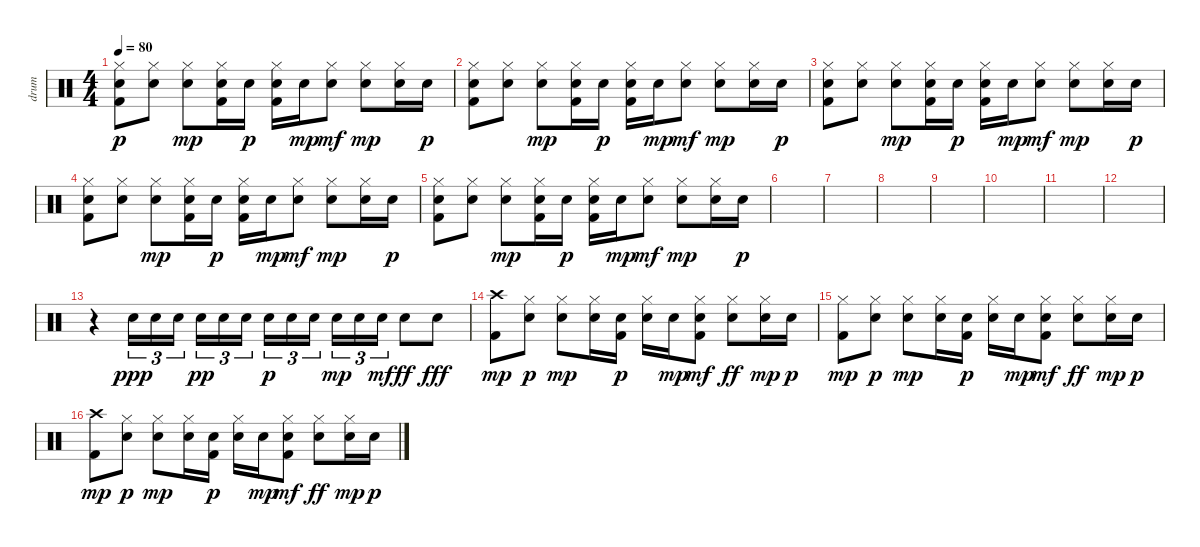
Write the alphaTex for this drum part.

\track ("drum" "drum") {instrument percussion}
\staff {score}
\articulation defaults
\ts (4 4)
\tempo 80
\clef neutral
\ks c
("Hi-Hat (closed)" "Snare (hit) 2" "Kick (hit) 2").8{dy p} ("Hi-Hat (closed)" "Snare (hit) 2").8 ("Hi-Hat (closed)" "Snare (hit) 2").8{dy mp} ("Hi-Hat (closed)" "Snare (hit) 2" "Kick (hit) 2").16 "Snare (hit) 2".16{dy p} ("Hi-Hat (closed)" "Snare (hit) 2" "Kick (hit) 2").16 "Snare (hit) 2".16{dy mp} ("Hi-Hat (closed)" "Snare (hit) 2").8{dy mf} ("Hi-Hat (closed)" "Snare (hit) 2").8{dy mp} ("Hi-Hat (closed)" "Snare (hit) 2").16 "Snare (hit) 2".16{dy p} |
("Hi-Hat (closed)" "Snare (hit) 2" "Kick (hit) 2").8 ("Hi-Hat (closed)" "Snare (hit) 2").8 ("Hi-Hat (closed)" "Snare (hit) 2").8{dy mp} ("Hi-Hat (closed)" "Snare (hit) 2" "Kick (hit) 2").16 "Snare (hit) 2".16{dy p} ("Hi-Hat (closed)" "Snare (hit) 2" "Kick (hit) 2").16 "Snare (hit) 2".16{dy mp} ("Hi-Hat (closed)" "Snare (hit) 2").8{dy mf} ("Hi-Hat (closed)" "Snare (hit) 2").8{dy mp} ("Hi-Hat (closed)" "Snare (hit) 2").16 "Snare (hit) 2".16{dy p} |
("Hi-Hat (closed)" "Snare (hit) 2" "Kick (hit) 2").8 ("Hi-Hat (closed)" "Snare (hit) 2").8 ("Hi-Hat (closed)" "Snare (hit) 2").8{dy mp} ("Hi-Hat (closed)" "Snare (hit) 2" "Kick (hit) 2").16 "Snare (hit) 2".16{dy p} ("Hi-Hat (closed)" "Snare (hit) 2" "Kick (hit) 2").16 "Snare (hit) 2".16{dy mp} ("Hi-Hat (closed)" "Snare (hit) 2").8{dy mf} ("Hi-Hat (closed)" "Snare (hit) 2").8{dy mp} ("Hi-Hat (closed)" "Snare (hit) 2").16 "Snare (hit) 2".16{dy p} |
("Hi-Hat (closed)" "Snare (hit) 2" "Kick (hit) 2").8 ("Hi-Hat (closed)" "Snare (hit) 2").8 ("Hi-Hat (closed)" "Snare (hit) 2").8{dy mp} ("Hi-Hat (closed)" "Snare (hit) 2" "Kick (hit) 2").16 "Snare (hit) 2".16{dy p} ("Hi-Hat (closed)" "Snare (hit) 2" "Kick (hit) 2").16 "Snare (hit) 2".16{dy mp} ("Hi-Hat (closed)" "Snare (hit) 2").8{dy mf} ("Hi-Hat (closed)" "Snare (hit) 2").8{dy mp} ("Hi-Hat (closed)" "Snare (hit) 2").16 "Snare (hit) 2".16{dy p} |
("Hi-Hat (closed)" "Snare (hit) 2" "Kick (hit) 2").8 ("Hi-Hat (closed)" "Snare (hit) 2").8 ("Hi-Hat (closed)" "Snare (hit) 2").8{dy mp} ("Hi-Hat (closed)" "Snare (hit) 2" "Kick (hit) 2").16 "Snare (hit) 2".16{dy p} ("Hi-Hat (closed)" "Snare (hit) 2" "Kick (hit) 2").16 "Snare (hit) 2".16{dy mp} ("Hi-Hat (closed)" "Snare (hit) 2").8{dy mf} ("Hi-Hat (closed)" "Snare (hit) 2").8{dy mp} ("Hi-Hat (closed)" "Snare (hit) 2").16 "Snare (hit) 2".16{dy p} |
|
|
|
|
|
|
|
r.4 "Snare (hit) 2".16{tu (3 2) dy ppp} "Snare (hit) 2".16{tu (3 2)} "Snare (hit) 2".16{tu (3 2)} "Snare (hit) 2".16{tu (3 2) dy pp} "Snare (hit) 2".16{tu (3 2)} "Snare (hit) 2".16{tu (3 2)} "Snare (hit) 2".16{tu (3 2) dy p} "Snare (hit) 2".16{tu (3 2)} "Snare (hit) 2".16{tu (3 2)} "Snare (hit) 2".16{tu (3 2) dy mp} "Snare (hit) 2".16{tu (3 2)} "Snare (hit) 2".16{tu (3 2) dy mf} "Snare (hit) 2".8{dy ff} "Snare (hit) 2".8{dy fff} |
("Crash high (hit)" "Kick (hit) 2").8{dy mp} ("Hi-Hat (closed)" "Snare (hit) 2").8{dy p} ("Hi-Hat (closed)" "Snare (hit) 2").8{dy mp} ("Hi-Hat (closed)" "Snare (hit) 2").16 ("Snare (hit) 2" "Kick (hit) 2").16{dy p} ("Hi-Hat (closed)" "Snare (hit) 2").16 "Snare (hit) 2".16{dy mp} ("Hi-Hat (closed)" "Snare (hit) 2" "Kick (hit) 2").8{dy mf} ("Hi-Hat (closed)" "Snare (hit) 2").8{dy ff} ("Hi-Hat (closed)" "Snare (hit) 2").16{dy mp} "Snare (hit) 2".16{dy p} |
("Hi-Hat (closed)" "Kick (hit) 2").8{dy mp} ("Hi-Hat (closed)" "Snare (hit) 2").8{dy p} ("Hi-Hat (closed)" "Snare (hit) 2").8{dy mp} ("Hi-Hat (closed)" "Snare (hit) 2").16 ("Snare (hit) 2" "Kick (hit) 2").16{dy p} ("Hi-Hat (closed)" "Snare (hit) 2").16 "Snare (hit) 2".16{dy mp} ("Hi-Hat (closed)" "Snare (hit) 2" "Kick (hit) 2").8{dy mf} ("Hi-Hat (closed)" "Snare (hit) 2").8{dy ff} ("Hi-Hat (closed)" "Snare (hit) 2").16{dy mp} "Snare (hit) 2".16{dy p} |
("Crash high (hit)" "Kick (hit) 2").8{dy mp} ("Hi-Hat (closed)" "Snare (hit) 2").8{dy p} ("Hi-Hat (closed)" "Snare (hit) 2").8{dy mp} ("Hi-Hat (closed)" "Snare (hit) 2").16 ("Snare (hit) 2" "Kick (hit) 2").16{dy p} ("Hi-Hat (closed)" "Snare (hit) 2").16 "Snare (hit) 2".16{dy mp} ("Hi-Hat (closed)" "Snare (hit) 2" "Kick (hit) 2").8{dy mf} ("Hi-Hat (closed)" "Snare (hit) 2").8{dy ff} ("Hi-Hat (closed)" "Snare (hit) 2").16{dy mp} "Snare (hit) 2".16{dy p}
